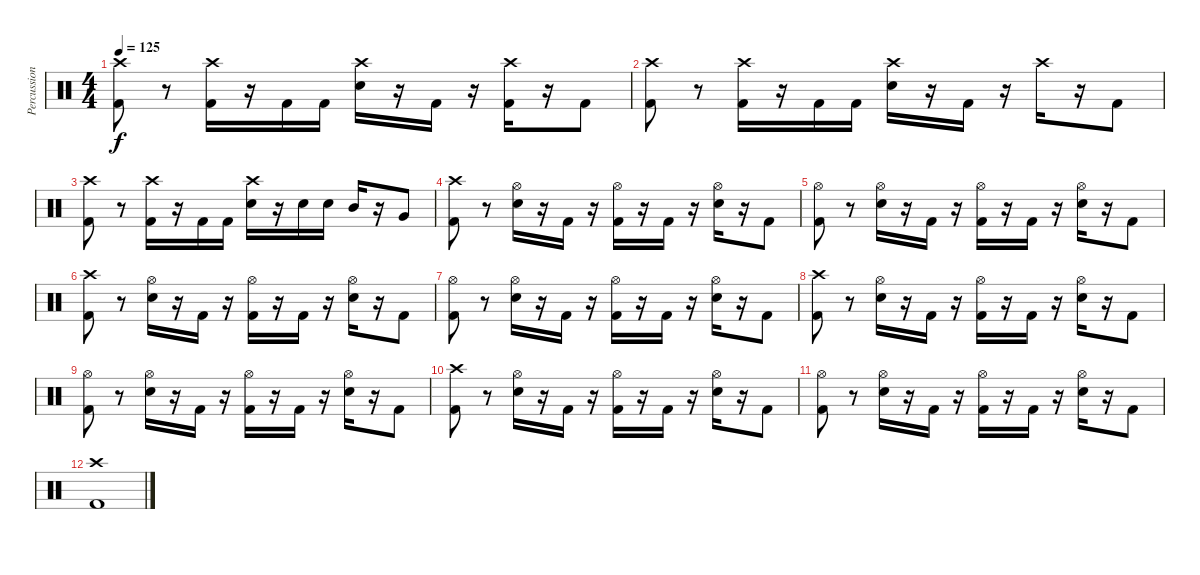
\track ("Percussion" "Percussion") {instrument percussion}
\staff {score}
\articulation defaults
\ts (4 4)
\tempo 125
\clef neutral
\ks c
("Crash high (hit)" "Kick (hit) 2").8{dy f} r.8 ("Crash high (hit)" "Kick (hit) 2").16 r.16 "Kick (hit) 2".16 "Kick (hit) 2".16 ("Crash high (hit)" "Electric Snare (hit)").16 r.16 "Kick (hit) 2".16 r.16 ("Crash high (hit)" "Kick (hit) 2").16 r.16 "Kick (hit) 2".8 |
("Crash high (hit)" "Kick (hit) 2").8 r.8 ("Crash high (hit)" "Kick (hit) 2").16 r.16 "Kick (hit) 2".16 "Kick (hit) 2".16 ("Crash high (hit)" "Electric Snare (hit)").16 r.16 "Kick (hit) 2".16 r.16 "Crash high (hit)".16 r.16 "Kick (hit) 2".8 |
("Crash high (hit)" "Kick (hit) 2").8 r.8 ("Crash high (hit)" "Kick (hit) 2").16 r.16 "Kick (hit) 2".16 "Kick (hit) 2".16 ("Crash high (hit)" "Electric Snare (hit)").16 r.16 "Electric Snare (hit)".16 "Electric Snare (hit)".16 "Mid Tom (hit)".16 r.16 "Very Low Tom (hit)".8 |
("Crash high (hit)" "Kick (hit) 2").8 r.8 ("Hi-Hat (open)" "Electric Snare (hit)").16 r.16 "Kick (hit) 2".16 r.16 ("Hi-Hat (open)" "Kick (hit) 2").16 r.16 "Kick (hit) 2".16 r.16 ("Hi-Hat (open)" "Electric Snare (hit)").16 r.16 "Kick (hit) 2".8 |
("Hi-Hat (open)" "Kick (hit) 2").8 r.8 ("Hi-Hat (open)" "Electric Snare (hit)").16 r.16 "Kick (hit) 2".16 r.16 ("Hi-Hat (open)" "Kick (hit) 2").16 r.16 "Kick (hit) 2".16 r.16 ("Hi-Hat (open)" "Electric Snare (hit)").16 r.16 "Kick (hit) 2".8 |
("Crash high (hit)" "Kick (hit) 2").8 r.8 ("Hi-Hat (open)" "Electric Snare (hit)").16 r.16 "Kick (hit) 2".16 r.16 ("Hi-Hat (open)" "Kick (hit) 2").16 r.16 "Kick (hit) 2".16 r.16 ("Hi-Hat (open)" "Electric Snare (hit)").16 r.16 "Kick (hit) 2".8 |
("Hi-Hat (open)" "Kick (hit) 2").8 r.8 ("Hi-Hat (open)" "Electric Snare (hit)").16 r.16 "Kick (hit) 2".16 r.16 ("Hi-Hat (open)" "Kick (hit) 2").16 r.16 "Kick (hit) 2".16 r.16 ("Hi-Hat (open)" "Electric Snare (hit)").16 r.16 "Kick (hit) 2".8 |
("Crash high (hit)" "Kick (hit) 2").8 r.8 ("Hi-Hat (open)" "Electric Snare (hit)").16 r.16 "Kick (hit) 2".16 r.16 ("Hi-Hat (open)" "Kick (hit) 2").16 r.16 "Kick (hit) 2".16 r.16 ("Hi-Hat (open)" "Electric Snare (hit)").16 r.16 "Kick (hit) 2".8 |
("Hi-Hat (open)" "Kick (hit) 2").8 r.8 ("Hi-Hat (open)" "Electric Snare (hit)").16 r.16 "Kick (hit) 2".16 r.16 ("Hi-Hat (open)" "Kick (hit) 2").16 r.16 "Kick (hit) 2".16 r.16 ("Hi-Hat (open)" "Electric Snare (hit)").16 r.16 "Kick (hit) 2".8 |
("Crash high (hit)" "Kick (hit) 2").8 r.8 ("Hi-Hat (open)" "Electric Snare (hit)").16 r.16 "Kick (hit) 2".16 r.16 ("Hi-Hat (open)" "Kick (hit) 2").16 r.16 "Kick (hit) 2".16 r.16 ("Hi-Hat (open)" "Electric Snare (hit)").16 r.16 "Kick (hit) 2".8 |
("Hi-Hat (open)" "Kick (hit) 2").8 r.8 ("Hi-Hat (open)" "Electric Snare (hit)").16 r.16 "Kick (hit) 2".16 r.16 ("Hi-Hat (open)" "Kick (hit) 2").16 r.16 "Kick (hit) 2".16 r.16 ("Hi-Hat (open)" "Electric Snare (hit)").16 r.16 "Kick (hit) 2".8 |
("Crash high (hit)" "Kick (hit) 2").1
